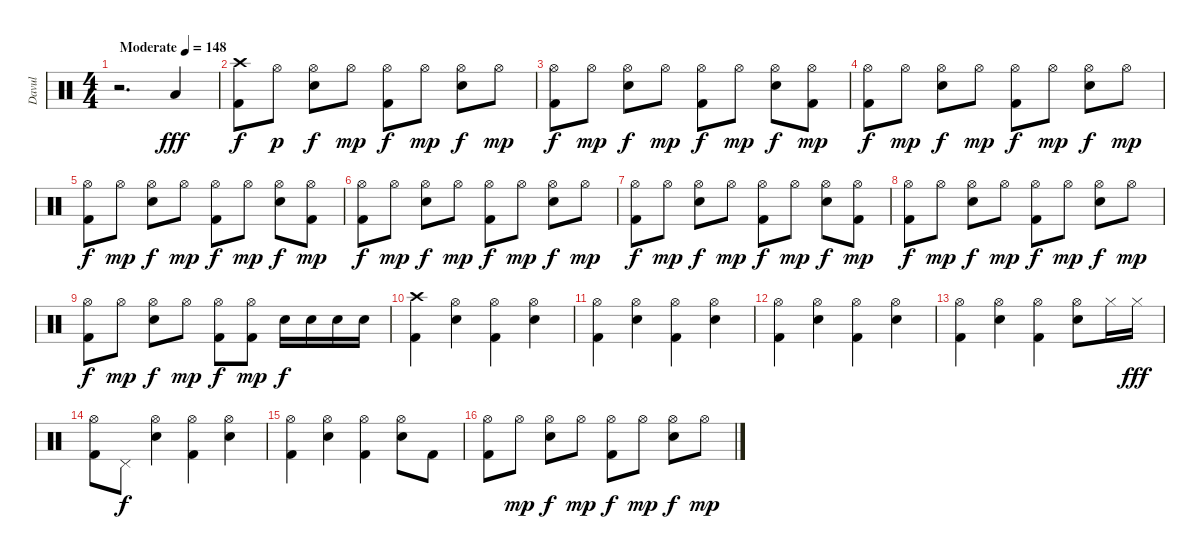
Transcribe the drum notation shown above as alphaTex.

\track ("Davul" "Davul") {instrument percussion}
\staff {score}
\articulation defaults
\ts (4 4)
\tempo (148 "Moderate")
\clef neutral
\ks c
r.2{d dy fff} "Low Floor Tom (hit)".4 |
("Crash high (hit)" "Kick (hit) 2").8{dy f} "Hi-Hat (open)".8{dy p} ("Hi-Hat (open)" "Electric Snare (hit)").8{dy f} "Hi-Hat (open)".8{dy mp} ("Hi-Hat (open)" "Kick (hit) 2").8{dy f} "Hi-Hat (open)".8{dy mp} ("Hi-Hat (open)" "Electric Snare (hit)").8{dy f} "Hi-Hat (open)".8{dy mp} |
("Hi-Hat (open)" "Kick (hit) 2").8{dy f} "Hi-Hat (open)".8{dy mp} ("Hi-Hat (open)" "Electric Snare (hit)").8{dy f} "Hi-Hat (open)".8{dy mp} ("Hi-Hat (open)" "Kick (hit) 2").8{dy f} "Hi-Hat (open)".8{dy mp} ("Hi-Hat (open)" "Electric Snare (hit)").8{dy f} ("Hi-Hat (open)" "Kick (hit) 2").8{dy mp} |
("Hi-Hat (open)" "Kick (hit) 2").8{dy f} "Hi-Hat (open)".8{dy mp} ("Hi-Hat (open)" "Electric Snare (hit)").8{dy f} "Hi-Hat (open)".8{dy mp} ("Hi-Hat (open)" "Kick (hit) 2").8{dy f} "Hi-Hat (open)".8{dy mp} ("Hi-Hat (open)" "Electric Snare (hit)").8{dy f} "Hi-Hat (open)".8{dy mp} |
("Hi-Hat (open)" "Kick (hit) 2").8{dy f} "Hi-Hat (open)".8{dy mp} ("Hi-Hat (open)" "Electric Snare (hit)").8{dy f} "Hi-Hat (open)".8{dy mp} ("Hi-Hat (open)" "Kick (hit) 2").8{dy f} "Hi-Hat (open)".8{dy mp} ("Hi-Hat (open)" "Electric Snare (hit)").8{dy f} ("Hi-Hat (open)" "Kick (hit) 2").8{dy mp} |
("Hi-Hat (open)" "Kick (hit) 2").8{dy f} "Hi-Hat (open)".8{dy mp} ("Hi-Hat (open)" "Electric Snare (hit)").8{dy f} "Hi-Hat (open)".8{dy mp} ("Hi-Hat (open)" "Kick (hit) 2").8{dy f} "Hi-Hat (open)".8{dy mp} ("Hi-Hat (open)" "Electric Snare (hit)").8{dy f} "Hi-Hat (open)".8{dy mp} |
("Hi-Hat (open)" "Kick (hit) 2").8{dy f} "Hi-Hat (open)".8{dy mp} ("Hi-Hat (open)" "Electric Snare (hit)").8{dy f} "Hi-Hat (open)".8{dy mp} ("Hi-Hat (open)" "Kick (hit) 2").8{dy f} "Hi-Hat (open)".8{dy mp} ("Hi-Hat (open)" "Electric Snare (hit)").8{dy f} ("Hi-Hat (open)" "Kick (hit) 2").8{dy mp} |
("Hi-Hat (open)" "Kick (hit) 2").8{dy f} "Hi-Hat (open)".8{dy mp} ("Hi-Hat (open)" "Electric Snare (hit)").8{dy f} "Hi-Hat (open)".8{dy mp} ("Hi-Hat (open)" "Kick (hit) 2").8{dy f} "Hi-Hat (open)".8{dy mp} ("Hi-Hat (open)" "Electric Snare (hit)").8{dy f} "Hi-Hat (open)".8{dy mp} |
("Hi-Hat (open)" "Kick (hit) 2").8{dy f} "Hi-Hat (open)".8{dy mp} ("Hi-Hat (open)" "Electric Snare (hit)").8{dy f} "Hi-Hat (open)".8{dy mp} ("Hi-Hat (open)" "Kick (hit) 2").8{dy f} ("Hi-Hat (open)" "Kick (hit) 2").8{dy mp} "Electric Snare (hit)".16{dy f} "Electric Snare (hit)".16 "Electric Snare (hit)".16 "Electric Snare (hit)".16 |
("Crash high (hit)" "Kick (hit) 2").4 ("Hi-Hat (open)" "Electric Snare (hit)").4 ("Hi-Hat (open)" "Kick (hit) 2").4 ("Hi-Hat (open)" "Electric Snare (hit)").4 |
("Hi-Hat (open)" "Kick (hit) 2").4 ("Hi-Hat (open)" "Electric Snare (hit)").4 ("Hi-Hat (open)" "Kick (hit) 2").4 ("Hi-Hat (open)" "Electric Snare (hit)").4 |
("Hi-Hat (open)" "Kick (hit) 2").4 ("Hi-Hat (open)" "Electric Snare (hit)").4 ("Hi-Hat (open)" "Kick (hit) 2").4 ("Hi-Hat (open)" "Electric Snare (hit)").4 |
("Hi-Hat (open)" "Kick (hit) 2").4 ("Hi-Hat (open)" "Electric Snare (hit)").4 ("Hi-Hat (open)" "Kick (hit) 2").4 ("Hi-Hat (open)" "Electric Snare (hit)").8 "Hi-Hat (closed)".16 "Hi-Hat (closed)".16{dy fff} |
("Hi-Hat (open)" "Kick (hit) 2").8 "Pedal Hi-Hat (hit)".8{dy f} ("Hi-Hat (open)" "Electric Snare (hit)").4 ("Hi-Hat (open)" "Kick (hit) 2").4 ("Hi-Hat (open)" "Electric Snare (hit)").4 |
("Hi-Hat (open)" "Kick (hit) 2").4 ("Hi-Hat (open)" "Electric Snare (hit)").4 ("Hi-Hat (open)" "Kick (hit) 2").4 ("Hi-Hat (open)" "Electric Snare (hit)").8 "Kick (hit) 2".8 |
("Hi-Hat (open)" "Kick (hit) 2").8 "Hi-Hat (open)".8{dy mp} ("Hi-Hat (open)" "Electric Snare (hit)").8{dy f} "Hi-Hat (open)".8{dy mp} ("Hi-Hat (open)" "Kick (hit) 2").8{dy f} "Hi-Hat (open)".8{dy mp} ("Hi-Hat (open)" "Electric Snare (hit)").8{dy f} "Hi-Hat (open)".8{dy mp}
